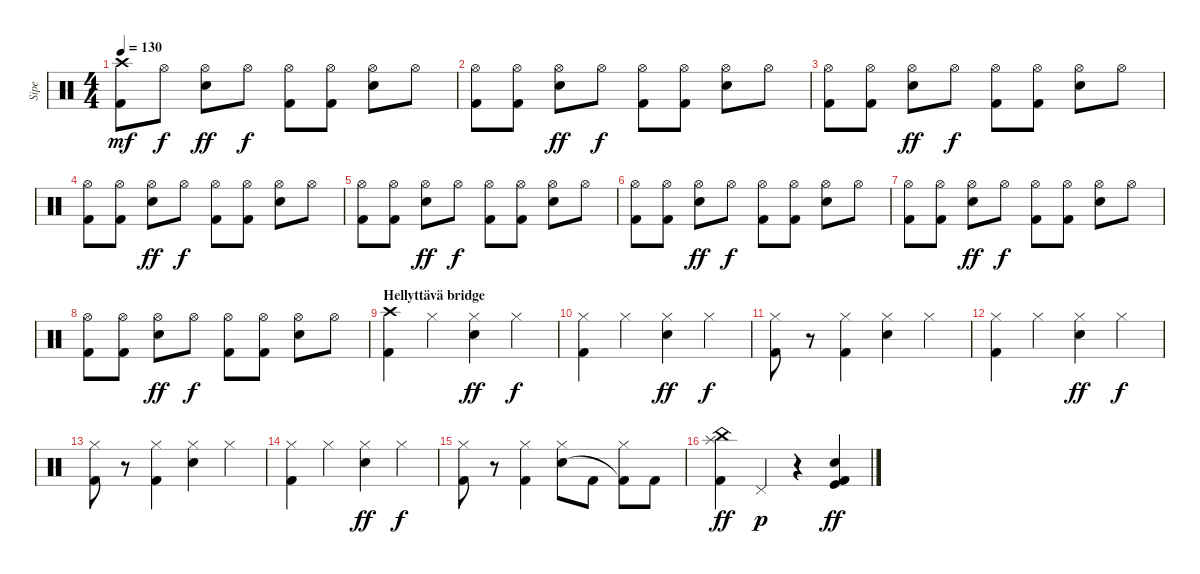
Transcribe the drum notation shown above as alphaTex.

\track ("Sipe" "Sipe") {instrument percussion}
\staff {score}
\articulation defaults
\ts (4 4)
\tempo 130
\clef neutral
\ks c
("Crash high (hit)" "Kick (hit) 2").8{dy mf} "Hi-Hat (open)".8{dy f} ("Hi-Hat (open)" "Electric Snare (hit)").8{dy ff} "Hi-Hat (open)".8{dy f} ("Hi-Hat (open)" "Kick (hit) 2").8 ("Hi-Hat (open)" "Kick (hit) 2").8 ("Hi-Hat (open)" "Electric Snare (hit)").8 "Hi-Hat (open)".8 |
("Hi-Hat (open)" "Kick (hit) 2").8 ("Hi-Hat (open)" "Kick (hit) 2").8 ("Hi-Hat (open)" "Electric Snare (hit)").8{dy ff} "Hi-Hat (open)".8{dy f} ("Hi-Hat (open)" "Kick (hit) 2").8 ("Hi-Hat (open)" "Kick (hit) 2").8 ("Hi-Hat (open)" "Electric Snare (hit)").8 "Hi-Hat (open)".8 |
("Hi-Hat (open)" "Kick (hit) 2").8 ("Hi-Hat (open)" "Kick (hit) 2").8 ("Hi-Hat (open)" "Electric Snare (hit)").8{dy ff} "Hi-Hat (open)".8{dy f} ("Hi-Hat (open)" "Kick (hit) 2").8 ("Hi-Hat (open)" "Kick (hit) 2").8 ("Hi-Hat (open)" "Electric Snare (hit)").8 "Hi-Hat (open)".8 |
("Hi-Hat (open)" "Kick (hit) 2").8 ("Hi-Hat (open)" "Kick (hit) 2").8 ("Hi-Hat (open)" "Electric Snare (hit)").8{dy ff} "Hi-Hat (open)".8{dy f} ("Hi-Hat (open)" "Kick (hit) 2").8 ("Hi-Hat (open)" "Kick (hit) 2").8 ("Hi-Hat (open)" "Electric Snare (hit)").8 "Hi-Hat (open)".8 |
("Hi-Hat (open)" "Kick (hit) 2").8 ("Hi-Hat (open)" "Kick (hit) 2").8 ("Hi-Hat (open)" "Electric Snare (hit)").8{dy ff} "Hi-Hat (open)".8{dy f} ("Hi-Hat (open)" "Kick (hit) 2").8 ("Hi-Hat (open)" "Kick (hit) 2").8 ("Hi-Hat (open)" "Electric Snare (hit)").8 "Hi-Hat (open)".8 |
("Hi-Hat (open)" "Kick (hit) 2").8 ("Hi-Hat (open)" "Kick (hit) 2").8 ("Hi-Hat (open)" "Electric Snare (hit)").8{dy ff} "Hi-Hat (open)".8{dy f} ("Hi-Hat (open)" "Kick (hit) 2").8 ("Hi-Hat (open)" "Kick (hit) 2").8 ("Hi-Hat (open)" "Electric Snare (hit)").8 "Hi-Hat (open)".8 |
("Hi-Hat (open)" "Kick (hit) 2").8 ("Hi-Hat (open)" "Kick (hit) 2").8 ("Hi-Hat (open)" "Electric Snare (hit)").8{dy ff} "Hi-Hat (open)".8{dy f} ("Hi-Hat (open)" "Kick (hit) 2").8 ("Hi-Hat (open)" "Kick (hit) 2").8 ("Hi-Hat (open)" "Electric Snare (hit)").8 "Hi-Hat (open)".8 |
("Hi-Hat (open)" "Kick (hit) 2").8 ("Hi-Hat (open)" "Kick (hit) 2").8 ("Hi-Hat (open)" "Electric Snare (hit)").8{dy ff} "Hi-Hat (open)".8{dy f} ("Hi-Hat (open)" "Kick (hit) 2").8 ("Hi-Hat (open)" "Kick (hit) 2").8 ("Hi-Hat (open)" "Electric Snare (hit)").8 "Hi-Hat (open)".8 |
\section ("" "Hellyttävä bridge")
("Crash high (hit)" "Kick (hit) 2").4 "Hi-Hat (closed)".4 ("Hi-Hat (closed)" "Electric Snare (hit)").4{dy ff} "Hi-Hat (closed)".4{dy f} |
("Hi-Hat (closed)" "Kick (hit) 2").4 "Hi-Hat (closed)".4 ("Hi-Hat (closed)" "Electric Snare (hit)").4{dy ff} "Hi-Hat (closed)".4{dy f} |
("Hi-Hat (closed)" "Kick (hit) 2").8 r.8 ("Hi-Hat (closed)" "Kick (hit) 2").4 ("Hi-Hat (closed)" "Electric Snare (hit)").4 "Hi-Hat (closed)".4 |
("Hi-Hat (closed)" "Kick (hit) 2").4 "Hi-Hat (closed)".4 ("Hi-Hat (closed)" "Electric Snare (hit)").4{dy ff} "Hi-Hat (closed)".4{dy f} |
("Hi-Hat (closed)" "Kick (hit) 2").8 r.8 ("Hi-Hat (closed)" "Kick (hit) 2").4 ("Hi-Hat (closed)" "Electric Snare (hit)").4 "Hi-Hat (closed)".4 |
("Hi-Hat (closed)" "Kick (hit) 2").4 "Hi-Hat (closed)".4 ("Hi-Hat (closed)" "Electric Snare (hit)").4{dy ff} "Hi-Hat (closed)".4{dy f} |
("Hi-Hat (closed)" "Kick (hit) 2").8 r.8 ("Hi-Hat (closed)" "Kick (hit) 2").4 ("Hi-Hat (closed)" "Electric Snare (hit)").8 "Kick (hit) 2".8 ("Hi-Hat (closed)" "Kick (hit) 2"{t}).8 "Kick (hit) 2".8 |
("China (hit)" "Splash (hit)" "Kick (hit) 2").4{dy ff} "Pedal Hi-Hat (hit)".4{dy p} r.4 ("Kick (hit) 2" "Electric Snare (hit)" "Kick (hit)").4{dy ff}
